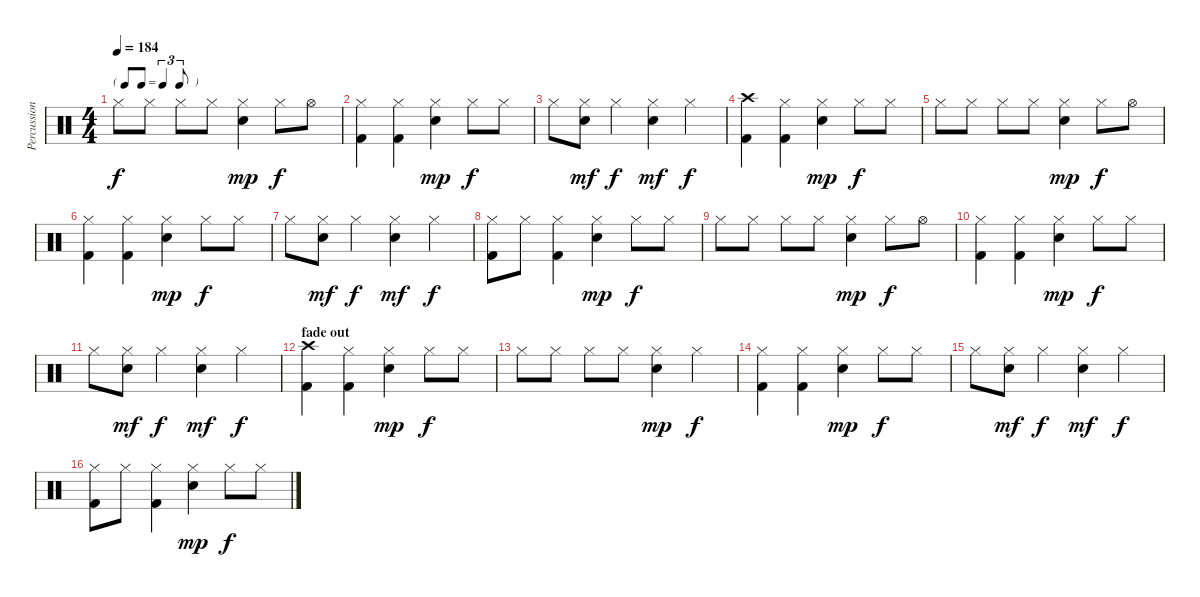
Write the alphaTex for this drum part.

\track ("Percussion" "Percussion") {instrument percussion}
\staff {score}
\articulation defaults
\ts (4 4)
\tf triplet8th
\tempo 184
\clef neutral
\ks c "Hi-Hat (closed)".8{dy f} "Hi-Hat (closed)".8 "Hi-Hat (closed)".8 "Hi-Hat (closed)".8
("Hi-Hat (closed)" "Electric Snare (hit)").4{dy mp} "Hi-Hat (closed)".8{dy f} "Hi-Hat (open)".8 |
("Hi-Hat (closed)" "Kick (hit) 2").4 ("Hi-Hat (closed)" "Kick (hit) 2").4 ("Hi-Hat (closed)" "Electric Snare (hit)").4{dy mp} "Hi-Hat (closed)".8{dy f} "Hi-Hat (closed)".8 |
"Hi-Hat (closed)".8 ("Hi-Hat (closed)" "Electric Snare (hit)").8{dy mf} "Hi-Hat (closed)".4{dy f} ("Hi-Hat (closed)" "Electric Snare (hit)").4{dy mf} "Hi-Hat (closed)".4{dy f} |
\section ("" "")
("Crash high (hit)" "Kick (hit) 2").4 ("Hi-Hat (closed)" "Kick (hit) 2").4 ("Hi-Hat (closed)" "Electric Snare (hit)").4{dy mp} "Hi-Hat (closed)".8{dy f} "Hi-Hat (closed)".8 |
"Hi-Hat (closed)".8 "Hi-Hat (closed)".8 "Hi-Hat (closed)".8 "Hi-Hat (closed)".8 ("Hi-Hat (closed)" "Electric Snare (hit)").4{dy mp} "Hi-Hat (closed)".8{dy f} "Hi-Hat (open)".8 |
("Hi-Hat (closed)" "Kick (hit) 2").4 ("Hi-Hat (closed)" "Kick (hit) 2").4 ("Hi-Hat (closed)" "Electric Snare (hit)").4{dy mp} "Hi-Hat (closed)".8{dy f} "Hi-Hat (closed)".8 |
"Hi-Hat (closed)".8 ("Hi-Hat (closed)" "Electric Snare (hit)").8{dy mf} "Hi-Hat (closed)".4{dy f} ("Hi-Hat (closed)" "Electric Snare (hit)").4{dy mf} "Hi-Hat (closed)".4{dy f} |
("Hi-Hat (closed)" "Kick (hit) 2").8 "Hi-Hat (closed)".8 ("Hi-Hat (closed)" "Kick (hit) 2").4 ("Hi-Hat (closed)" "Electric Snare (hit)").4{dy mp} "Hi-Hat (closed)".8{dy f} "Hi-Hat (closed)".8 |
"Hi-Hat (closed)".8 "Hi-Hat (closed)".8 "Hi-Hat (closed)".8 "Hi-Hat (closed)".8 ("Hi-Hat (closed)" "Electric Snare (hit)").4{dy mp} "Hi-Hat (closed)".8{dy f} "Hi-Hat (open)".8 |
("Hi-Hat (closed)" "Kick (hit) 2").4 ("Hi-Hat (closed)" "Kick (hit) 2").4 ("Hi-Hat (closed)" "Electric Snare (hit)").4{dy mp} "Hi-Hat (closed)".8{dy f} "Hi-Hat (closed)".8 |
"Hi-Hat (closed)".8 ("Hi-Hat (closed)" "Electric Snare (hit)").8{dy mf} "Hi-Hat (closed)".4{dy f} ("Hi-Hat (closed)" "Electric Snare (hit)").4{dy mf} "Hi-Hat (closed)".4{dy f} |
\section ("" "fade out")
("Crash high (hit)" "Kick (hit) 2").4{volume 11} ("Hi-Hat (closed)" "Kick (hit) 2").4 ("Hi-Hat (closed)" "Electric Snare (hit)").4{dy mp} "Hi-Hat (closed)".8{dy f} "Hi-Hat (closed)".8 |
"Hi-Hat (closed)".8 "Hi-Hat (closed)".8 "Hi-Hat (closed)".8 "Hi-Hat (closed)".8 ("Hi-Hat (closed)" "Electric Snare (hit)").4{dy mp} "Hi-Hat (closed)".4{dy f} |
("Hi-Hat (closed)" "Kick (hit) 2").4{volume 10} ("Hi-Hat (closed)" "Kick (hit) 2").4 ("Hi-Hat (closed)" "Electric Snare (hit)").4{dy mp} "Hi-Hat (closed)".8{dy f} "Hi-Hat (closed)".8 |
"Hi-Hat (closed)".8 ("Hi-Hat (closed)" "Electric Snare (hit)").8{dy mf} "Hi-Hat (closed)".4{dy f} ("Hi-Hat (closed)" "Electric Snare (hit)").4{dy mf} "Hi-Hat (closed)".4{dy f} |
("Hi-Hat (closed)" "Kick (hit) 2").8{volume 8} "Hi-Hat (closed)".8 ("Hi-Hat (closed)" "Kick (hit) 2").4 ("Hi-Hat (closed)" "Electric Snare (hit)").4{dy mp} "Hi-Hat (closed)".8{dy f} "Hi-Hat (closed)".8
